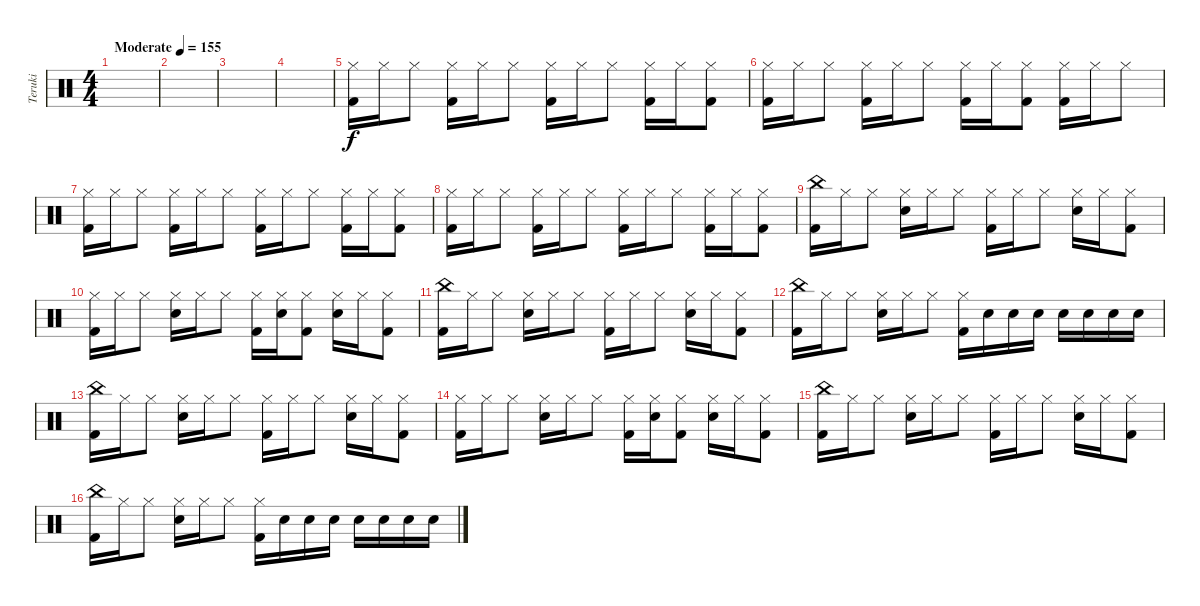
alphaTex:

\track ("Teruki" "Teruki") {instrument percussion}
\staff {score}
\articulation defaults
\ts (4 4)
\tempo (155 "Moderate")
\clef neutral
\ks c
|
|
|
|
("Hi-Hat (closed)" "Kick (hit) 2").16 "Hi-Hat (closed)".16 "Hi-Hat (closed)".8 ("Hi-Hat (closed)" "Kick (hit) 2").16 "Hi-Hat (closed)".16 "Hi-Hat (closed)".8 ("Hi-Hat (closed)" "Kick (hit) 2").16 "Hi-Hat (closed)".16 "Hi-Hat (closed)".8 ("Hi-Hat (closed)" "Kick (hit) 2").16 "Hi-Hat (closed)".16 ("Hi-Hat (closed)" "Kick (hit) 2").8 |
("Hi-Hat (closed)" "Kick (hit) 2").16 "Hi-Hat (closed)".16 "Hi-Hat (closed)".8 ("Hi-Hat (closed)" "Kick (hit) 2").16 "Hi-Hat (closed)".16 "Hi-Hat (closed)".8 ("Hi-Hat (closed)" "Kick (hit) 2").16 "Hi-Hat (closed)".16 ("Hi-Hat (closed)" "Kick (hit) 2").8 ("Hi-Hat (closed)" "Kick (hit) 2").16 "Hi-Hat (closed)".16 "Hi-Hat (closed)".8 |
("Hi-Hat (closed)" "Kick (hit) 2").16 "Hi-Hat (closed)".16 "Hi-Hat (closed)".8 ("Hi-Hat (closed)" "Kick (hit) 2").16 "Hi-Hat (closed)".16 "Hi-Hat (closed)".8 ("Hi-Hat (closed)" "Kick (hit) 2").16 "Hi-Hat (closed)".16 "Hi-Hat (closed)".8 ("Hi-Hat (closed)" "Kick (hit) 2").16 "Hi-Hat (closed)".16 ("Hi-Hat (closed)" "Kick (hit) 2").8 |
("Hi-Hat (closed)" "Kick (hit) 2").16 "Hi-Hat (closed)".16 "Hi-Hat (closed)".8 ("Hi-Hat (closed)" "Kick (hit) 2").16 "Hi-Hat (closed)".16 "Hi-Hat (closed)".8 ("Hi-Hat (closed)" "Kick (hit) 2").16 "Hi-Hat (closed)".16 "Hi-Hat (closed)".8 ("Hi-Hat (closed)" "Kick (hit) 2").16 "Hi-Hat (closed)".16 ("Hi-Hat (closed)" "Kick (hit) 2").8 |
("China (hit)" "Kick (hit) 2").16 "Hi-Hat (closed)".16 "Hi-Hat (closed)".8 ("Hi-Hat (closed)" "Snare (hit) 2").16 "Hi-Hat (closed)".16 "Hi-Hat (closed)".8 ("Hi-Hat (closed)" "Kick (hit) 2").16 "Hi-Hat (closed)".16 "Hi-Hat (closed)".8 ("Hi-Hat (closed)" "Snare (hit) 2").16 "Hi-Hat (closed)".16 ("Hi-Hat (closed)" "Kick (hit) 2").8 |
("Hi-Hat (closed)" "Kick (hit) 2").16 "Hi-Hat (closed)".16 "Hi-Hat (closed)".8 ("Hi-Hat (closed)" "Snare (hit) 2").16 "Hi-Hat (closed)".16 "Hi-Hat (closed)".8 ("Hi-Hat (closed)" "Kick (hit) 2").16 ("Hi-Hat (closed)" "Snare (hit) 2").16 ("Hi-Hat (closed)" "Kick (hit) 2").8 ("Hi-Hat (closed)" "Snare (hit) 2").16 "Hi-Hat (closed)".16 ("Hi-Hat (closed)" "Kick (hit) 2").8 |
("China (hit)" "Kick (hit) 2").16 "Hi-Hat (closed)".16 "Hi-Hat (closed)".8 ("Hi-Hat (closed)" "Snare (hit) 2").16 "Hi-Hat (closed)".16 "Hi-Hat (closed)".8 ("Hi-Hat (closed)" "Kick (hit) 2").16 "Hi-Hat (closed)".16 "Hi-Hat (closed)".8 ("Hi-Hat (closed)" "Snare (hit) 2").16 "Hi-Hat (closed)".16 ("Hi-Hat (closed)" "Kick (hit) 2").8 |
("China (hit)" "Kick (hit) 2").16 "Hi-Hat (closed)".16 "Hi-Hat (closed)".8 ("Hi-Hat (closed)" "Snare (hit) 2").16 "Hi-Hat (closed)".16 "Hi-Hat (closed)".8 ("Hi-Hat (closed)" "Kick (hit) 2").16 "Snare (hit) 2".16 "Snare (hit) 2".16 "Snare (hit) 2".16 "Snare (hit) 2".16 "Snare (hit) 2".16 "Snare (hit) 2".16 "Snare (hit) 2".16 |
("China (hit)" "Kick (hit) 2").16 "Hi-Hat (closed)".16 "Hi-Hat (closed)".8 ("Hi-Hat (closed)" "Snare (hit) 2").16 "Hi-Hat (closed)".16 "Hi-Hat (closed)".8 ("Hi-Hat (closed)" "Kick (hit) 2").16 "Hi-Hat (closed)".16 "Hi-Hat (closed)".8 ("Hi-Hat (closed)" "Snare (hit) 2").16 "Hi-Hat (closed)".16 ("Hi-Hat (closed)" "Kick (hit) 2").8 |
("Hi-Hat (closed)" "Kick (hit) 2").16 "Hi-Hat (closed)".16 "Hi-Hat (closed)".8 ("Hi-Hat (closed)" "Snare (hit) 2").16 "Hi-Hat (closed)".16 "Hi-Hat (closed)".8 ("Hi-Hat (closed)" "Kick (hit) 2").16 ("Hi-Hat (closed)" "Snare (hit) 2").16 ("Hi-Hat (closed)" "Kick (hit) 2").8 ("Hi-Hat (closed)" "Snare (hit) 2").16 "Hi-Hat (closed)".16 ("Hi-Hat (closed)" "Kick (hit) 2").8 |
("China (hit)" "Kick (hit) 2").16 "Hi-Hat (closed)".16 "Hi-Hat (closed)".8 ("Hi-Hat (closed)" "Snare (hit) 2").16 "Hi-Hat (closed)".16 "Hi-Hat (closed)".8 ("Hi-Hat (closed)" "Kick (hit) 2").16 "Hi-Hat (closed)".16 "Hi-Hat (closed)".8 ("Hi-Hat (closed)" "Snare (hit) 2").16 "Hi-Hat (closed)".16 ("Hi-Hat (closed)" "Kick (hit) 2").8 |
("China (hit)" "Kick (hit) 2").16 "Hi-Hat (closed)".16 "Hi-Hat (closed)".8 ("Hi-Hat (closed)" "Snare (hit) 2").16 "Hi-Hat (closed)".16 "Hi-Hat (closed)".8 ("Hi-Hat (closed)" "Kick (hit) 2").16 "Snare (hit) 2".16 "Snare (hit) 2".16 "Snare (hit) 2".16 "Snare (hit) 2".16 "Snare (hit) 2".16 "Snare (hit) 2".16 "Snare (hit) 2".16
